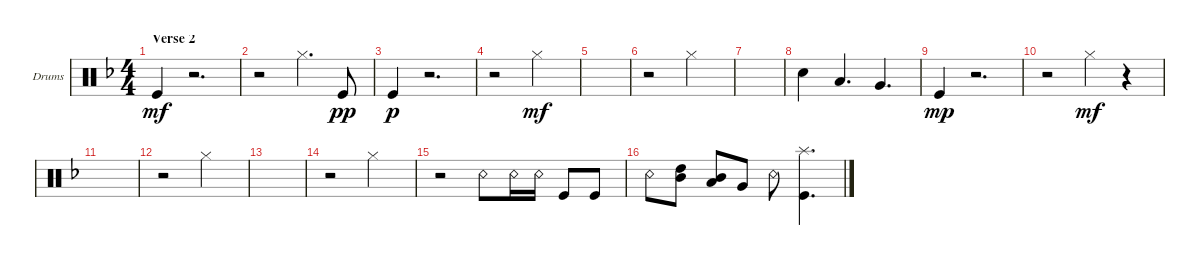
\bracketExtendMode groupsimilarinstruments
\firstSystemTrackNameOrientation horizontal
\otherSystemsTrackNameOrientation horizontal
\track ("Drumkit" "Drums") {instrument percussion}
\staff {score}
\articulation defaults
\ts (4 4)
\section ("" "Verse 2")
\tempo (125 hide)
\clef neutral
\scale
0.333333
\ks dminor "Kick (hit)".4{dy mf}
r.2{d} |
\scale
0.333333 r.2 "Hi-Hat (closed)".4{d} "Kick (hit)".8{dy pp} |
\scale
0.333333 "Kick (hit)".4{dy p} r.2{d} |
\scale
0.333333 r.2 "Hi-Hat (closed)".2{dy mf} |
\scale
0.333333 |
\scale
0.333333 r.2 "Hi-Hat (closed)".2 |
\scale
0.333333 |
\scale
0.333333 "Snare (hit) 2".4 "Low Tom (hit)".4{d} "Very Low Tom (hit)".4{d} |
\scale
0.333333 "Kick (hit)".4{dy mp} r.2{d} |
\scale
0.333333 r.2 "Hi-Hat (closed)".4{dy mf} r.4 |
\scale
0.333333 |
\scale
0.333333 r.2 "Hi-Hat (closed)".2 |
\scale
0.333333 |
\scale
0.333333 r.2 "Hi-Hat (closed)".2 |
\scale
0.333333 r.2 "Snare (rim shot)".8 "Snare (rim shot)".16 "Snare (rim shot)".16 "Kick (hit)".8 "Kick (hit)".8 |
\scale
0.333333 "Snare (rim shot)".8 ("High Tom (hit)" "Mid Tom (hit)").8 ("Mid Tom (hit)" "Low Tom (hit)").8 "Very Low Tom (hit)".8 "Snare (rim shot)".8 ("Splash (hit)" "Kick (hit)").4{d}
